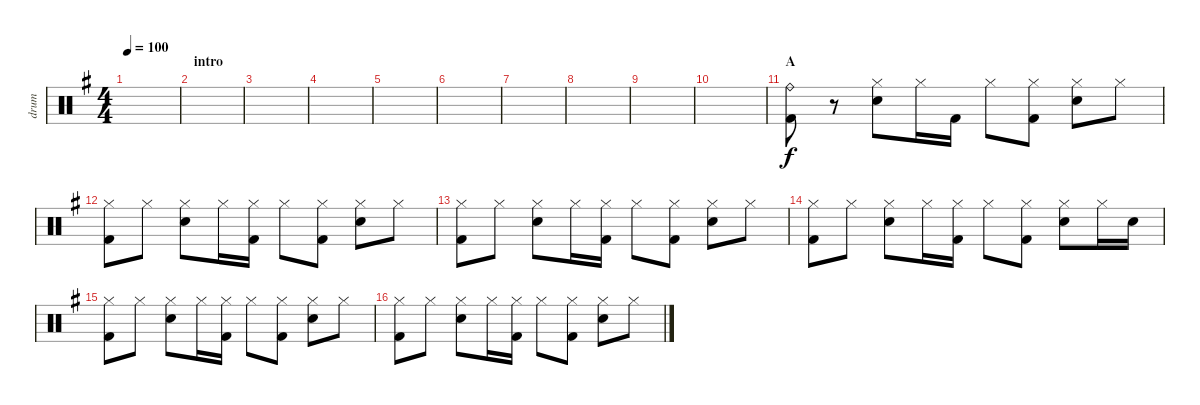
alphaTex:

\track ("drum" "drum") {instrument percussion}
\staff {score}
\articulation defaults
\ts (4 4)
\tempo 100
\clef neutral
\ks g
|
\section ("" "intro")
|
|
|
|
|
|
|
|
|
\section ("" "A")
("Ride (bell)" "Kick (hit) 2").8 r.8 ("Hi-Hat (closed)" "Snare (hit) 2").8 "Hi-Hat (closed)".16 "Kick (hit) 2".16 "Hi-Hat (closed)".8 ("Hi-Hat (closed)" "Kick (hit) 2").8 ("Hi-Hat (closed)" "Snare (hit) 2").8 "Hi-Hat (closed)".8 |
("Hi-Hat (closed)" "Kick (hit) 2").8 "Hi-Hat (closed)".8 ("Hi-Hat (closed)" "Snare (hit) 2").8 "Hi-Hat (closed)".16 ("Hi-Hat (closed)" "Kick (hit) 2").16 "Hi-Hat (closed)".8 ("Hi-Hat (closed)" "Kick (hit) 2").8 ("Hi-Hat (closed)" "Snare (hit) 2").8 "Hi-Hat (closed)".8 |
("Hi-Hat (closed)" "Kick (hit) 2").8 "Hi-Hat (closed)".8 ("Hi-Hat (closed)" "Snare (hit) 2").8 "Hi-Hat (closed)".16 ("Hi-Hat (closed)" "Kick (hit) 2").16 "Hi-Hat (closed)".8 ("Hi-Hat (closed)" "Kick (hit) 2").8 ("Hi-Hat (closed)" "Snare (hit) 2").8 "Hi-Hat (closed)".8 |
("Hi-Hat (closed)" "Kick (hit) 2").8 "Hi-Hat (closed)".8 ("Hi-Hat (closed)" "Snare (hit) 2").8 "Hi-Hat (closed)".16 ("Hi-Hat (closed)" "Kick (hit) 2").16 "Hi-Hat (closed)".8 ("Hi-Hat (closed)" "Kick (hit) 2").8 ("Hi-Hat (closed)" "Snare (hit) 2").8 "Hi-Hat (closed)".16 "Snare (hit) 2".16 |
("Hi-Hat (closed)" "Kick (hit) 2").8 "Hi-Hat (closed)".8 ("Hi-Hat (closed)" "Snare (hit) 2").8 "Hi-Hat (closed)".16 ("Hi-Hat (closed)" "Kick (hit) 2").16 "Hi-Hat (closed)".8 ("Hi-Hat (closed)" "Kick (hit) 2").8 ("Hi-Hat (closed)" "Snare (hit) 2").8 "Hi-Hat (closed)".8 |
("Hi-Hat (closed)" "Kick (hit) 2").8 "Hi-Hat (closed)".8 ("Hi-Hat (closed)" "Snare (hit) 2").8 "Hi-Hat (closed)".16 ("Hi-Hat (closed)" "Kick (hit) 2").16 "Hi-Hat (closed)".8 ("Hi-Hat (closed)" "Kick (hit) 2").8 ("Hi-Hat (closed)" "Snare (hit) 2").8 "Hi-Hat (closed)".8
